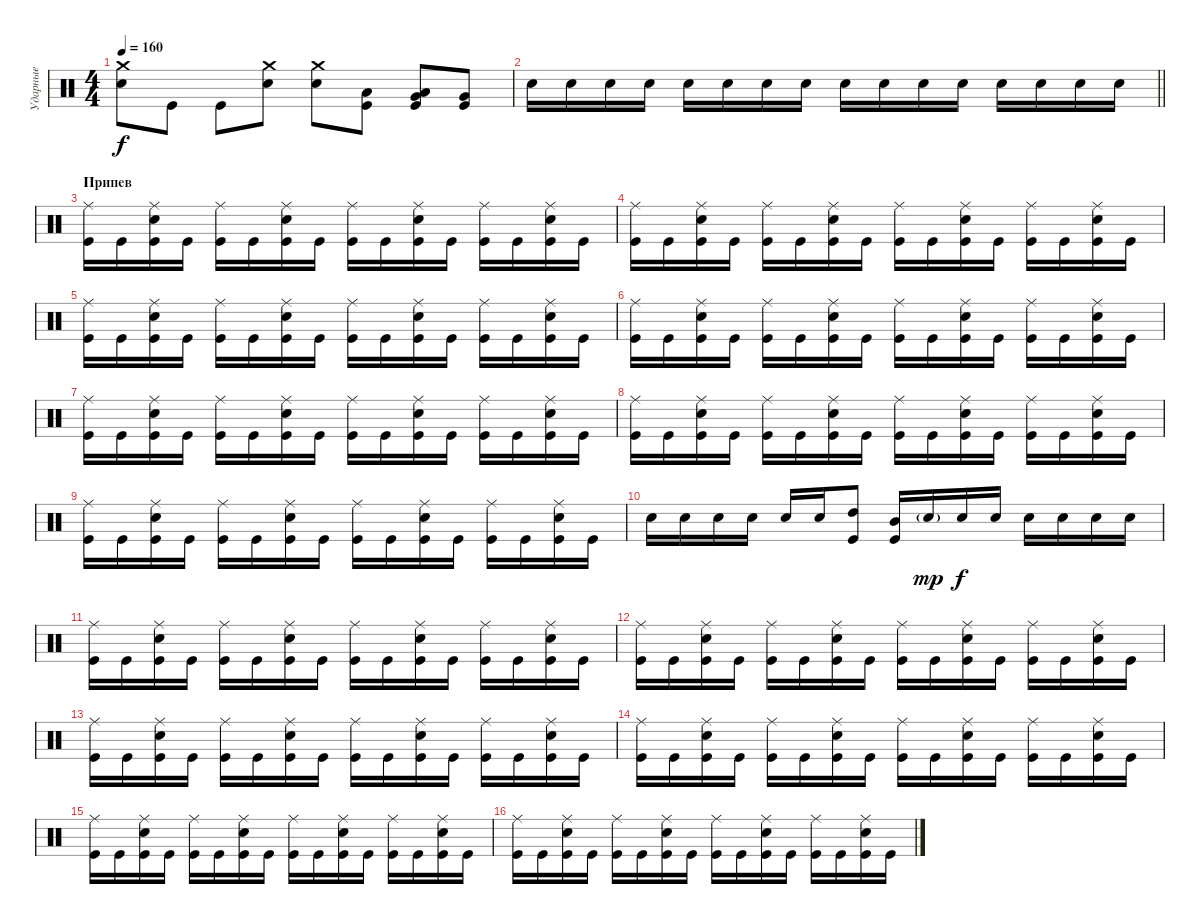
\track ("Ударные" "Ударные") {instrument percussion}
\staff {score}
\articulation defaults
\ts (4 4)
\tempo 160
\clef neutral
\ks c
("Snare (hit) 2" "Crash medium (hit)").8{dy f} "Kick (hit)".8 "Kick (hit)".8 ("Snare (hit) 2" "Crash medium (hit)").8 ("Snare (hit) 2" "Crash medium (hit)").8 ("Kick (hit)" "Low Tom (hit)").8 ("Kick (hit)" "Very Low Tom (hit)" "Low Tom (hit)").8{bd 60} ("Kick (hit)" "Very Low Tom (hit)").8 |
\barLineRight lightlight "Snare (hit) 2".16 "Snare (hit) 2".16 "Snare (hit) 2".16 "Snare (hit) 2".16 "Snare (hit) 2".16 "Snare (hit) 2".16 "Snare (hit) 2".16 "Snare (hit) 2".16 "Snare (hit) 2".16 "Snare (hit) 2".16 "Snare (hit) 2".16 "Snare (hit) 2".16 "Snare (hit) 2".16 "Snare (hit) 2".16 "Snare (hit) 2".16 "Snare (hit) 2".16
|
\section ("" "Припев")
("Kick (hit)" "Ride (middle)").16 "Kick (hit)".16 ("Kick (hit)" "Snare (hit) 2" "Ride (middle)").16 "Kick (hit)".16 ("Kick (hit)" "Ride (middle)").16 "Kick (hit)".16 ("Kick (hit)" "Snare (hit) 2" "Ride (middle)").16 "Kick (hit)".16 ("Kick (hit)" "Ride (middle)").16 "Kick (hit)".16 ("Kick (hit)" "Snare (hit) 2" "Ride (middle)").16 "Kick (hit)".16 ("Kick (hit)" "Ride (middle)").16 "Kick (hit)".16 ("Kick (hit)" "Snare (hit) 2" "Ride (middle)").16 "Kick (hit)".16 |
("Kick (hit)" "Ride (middle)").16 "Kick (hit)".16 ("Kick (hit)" "Snare (hit) 2" "Ride (middle)").16 "Kick (hit)".16 ("Kick (hit)" "Ride (middle)").16 "Kick (hit)".16 ("Kick (hit)" "Snare (hit) 2" "Ride (middle)").16 "Kick (hit)".16 ("Kick (hit)" "Ride (middle)").16 "Kick (hit)".16 ("Kick (hit)" "Snare (hit) 2" "Ride (middle)").16 "Kick (hit)".16 ("Kick (hit)" "Ride (middle)").16 "Kick (hit)".16 ("Kick (hit)" "Snare (hit) 2" "Ride (middle)").16 "Kick (hit)".16 |
("Kick (hit)" "Ride (middle)").16 "Kick (hit)".16 ("Kick (hit)" "Snare (hit) 2" "Ride (middle)").16 "Kick (hit)".16 ("Kick (hit)" "Ride (middle)").16 "Kick (hit)".16 ("Kick (hit)" "Snare (hit) 2" "Ride (middle)").16 "Kick (hit)".16 ("Kick (hit)" "Ride (middle)").16 "Kick (hit)".16 ("Kick (hit)" "Snare (hit) 2" "Ride (middle)").16 "Kick (hit)".16 ("Kick (hit)" "Ride (middle)").16 "Kick (hit)".16 ("Kick (hit)" "Snare (hit) 2" "Ride (middle)").16 "Kick (hit)".16 |
("Kick (hit)" "Ride (middle)").16 "Kick (hit)".16 ("Kick (hit)" "Snare (hit) 2" "Ride (middle)").16 "Kick (hit)".16 ("Kick (hit)" "Ride (middle)").16 "Kick (hit)".16 ("Kick (hit)" "Snare (hit) 2" "Ride (middle)").16 "Kick (hit)".16 ("Kick (hit)" "Ride (middle)").16 "Kick (hit)".16 ("Kick (hit)" "Snare (hit) 2" "Ride (middle)").16 "Kick (hit)".16 ("Kick (hit)" "Ride (middle)").16 "Kick (hit)".16 ("Kick (hit)" "Snare (hit) 2" "Ride (middle)").16 "Kick (hit)".16 |
("Kick (hit)" "Ride (middle)").16 "Kick (hit)".16 ("Kick (hit)" "Snare (hit) 2" "Ride (middle)").16 "Kick (hit)".16 ("Kick (hit)" "Ride (middle)").16 "Kick (hit)".16 ("Kick (hit)" "Snare (hit) 2" "Ride (middle)").16 "Kick (hit)".16 ("Kick (hit)" "Ride (middle)").16 "Kick (hit)".16 ("Kick (hit)" "Snare (hit) 2" "Ride (middle)").16 "Kick (hit)".16 ("Kick (hit)" "Ride (middle)").16 "Kick (hit)".16 ("Kick (hit)" "Snare (hit) 2" "Ride (middle)").16 "Kick (hit)".16 |
("Kick (hit)" "Ride (middle)").16 "Kick (hit)".16 ("Kick (hit)" "Snare (hit) 2" "Ride (middle)").16 "Kick (hit)".16 ("Kick (hit)" "Ride (middle)").16 "Kick (hit)".16 ("Kick (hit)" "Snare (hit) 2" "Ride (middle)").16 "Kick (hit)".16 ("Kick (hit)" "Ride (middle)").16 "Kick (hit)".16 ("Kick (hit)" "Snare (hit) 2" "Ride (middle)").16 "Kick (hit)".16 ("Kick (hit)" "Ride (middle)").16 "Kick (hit)".16 ("Kick (hit)" "Snare (hit) 2" "Ride (middle)").16 "Kick (hit)".16 |
("Kick (hit)" "Ride (middle)").16 "Kick (hit)".16 ("Kick (hit)" "Snare (hit) 2" "Ride (middle)").16 "Kick (hit)".16 ("Kick (hit)" "Ride (middle)").16 "Kick (hit)".16 ("Kick (hit)" "Snare (hit) 2" "Ride (middle)").16 "Kick (hit)".16 ("Kick (hit)" "Ride (middle)").16 "Kick (hit)".16 ("Kick (hit)" "Snare (hit) 2" "Ride (middle)").16 "Kick (hit)".16 ("Kick (hit)" "Ride (middle)").16 "Kick (hit)".16 ("Kick (hit)" "Snare (hit) 2" "Ride (middle)").16 "Kick (hit)".16 |
"Snare (hit) 2".16 "Snare (hit) 2".16 "Snare (hit) 2".16 "Snare (hit) 2".16 "Snare (hit) 2".16 "Snare (hit) 2".16 ("Kick (hit)" "High Tom (hit)").8 ("Kick (hit)" "Mid Tom (hit)").16 "Snare (hit) 2"{g}.16{dy mp} "Snare (hit) 2".16{dy f} "Snare (hit) 2".16 "Snare (hit) 2".16 "Snare (hit) 2".16 "Snare (hit) 2".16 "Snare (hit) 2".16 |
("Kick (hit)" "Ride (middle)").16 "Kick (hit)".16 ("Kick (hit)" "Snare (hit) 2" "Ride (middle)").16 "Kick (hit)".16 ("Kick (hit)" "Ride (middle)").16 "Kick (hit)".16 ("Kick (hit)" "Snare (hit) 2" "Ride (middle)").16 "Kick (hit)".16 ("Kick (hit)" "Ride (middle)").16 "Kick (hit)".16 ("Kick (hit)" "Snare (hit) 2" "Ride (middle)").16 "Kick (hit)".16 ("Kick (hit)" "Ride (middle)").16 "Kick (hit)".16 ("Kick (hit)" "Snare (hit) 2" "Ride (middle)").16 "Kick (hit)".16 |
("Kick (hit)" "Ride (middle)").16 "Kick (hit)".16 ("Kick (hit)" "Snare (hit) 2" "Ride (middle)").16 "Kick (hit)".16 ("Kick (hit)" "Ride (middle)").16 "Kick (hit)".16 ("Kick (hit)" "Snare (hit) 2" "Ride (middle)").16 "Kick (hit)".16 ("Kick (hit)" "Ride (middle)").16 "Kick (hit)".16 ("Kick (hit)" "Snare (hit) 2" "Ride (middle)").16 "Kick (hit)".16 ("Kick (hit)" "Ride (middle)").16 "Kick (hit)".16 ("Kick (hit)" "Snare (hit) 2" "Ride (middle)").16 "Kick (hit)".16 |
("Kick (hit)" "Ride (middle)").16 "Kick (hit)".16 ("Kick (hit)" "Snare (hit) 2" "Ride (middle)").16 "Kick (hit)".16 ("Kick (hit)" "Ride (middle)").16 "Kick (hit)".16 ("Kick (hit)" "Snare (hit) 2" "Ride (middle)").16 "Kick (hit)".16 ("Kick (hit)" "Ride (middle)").16 "Kick (hit)".16 ("Kick (hit)" "Snare (hit) 2" "Ride (middle)").16 "Kick (hit)".16 ("Kick (hit)" "Ride (middle)").16 "Kick (hit)".16 ("Kick (hit)" "Snare (hit) 2" "Ride (middle)").16 "Kick (hit)".16 |
("Kick (hit)" "Ride (middle)").16 "Kick (hit)".16 ("Kick (hit)" "Snare (hit) 2" "Ride (middle)").16 "Kick (hit)".16 ("Kick (hit)" "Ride (middle)").16 "Kick (hit)".16 ("Kick (hit)" "Snare (hit) 2" "Ride (middle)").16 "Kick (hit)".16 ("Kick (hit)" "Ride (middle)").16 "Kick (hit)".16 ("Kick (hit)" "Snare (hit) 2" "Ride (middle)").16 "Kick (hit)".16 ("Kick (hit)" "Ride (middle)").16 "Kick (hit)".16 ("Kick (hit)" "Snare (hit) 2" "Ride (middle)").16 "Kick (hit)".16 |
("Kick (hit)" "Ride (middle)").16 "Kick (hit)".16 ("Kick (hit)" "Snare (hit) 2" "Ride (middle)").16 "Kick (hit)".16 ("Kick (hit)" "Ride (middle)").16 "Kick (hit)".16 ("Kick (hit)" "Snare (hit) 2" "Ride (middle)").16 "Kick (hit)".16 ("Kick (hit)" "Ride (middle)").16 "Kick (hit)".16 ("Kick (hit)" "Snare (hit) 2" "Ride (middle)").16 "Kick (hit)".16 ("Kick (hit)" "Ride (middle)").16 "Kick (hit)".16 ("Kick (hit)" "Snare (hit) 2" "Ride (middle)").16 "Kick (hit)".16 |
("Kick (hit)" "Ride (middle)").16 "Kick (hit)".16 ("Kick (hit)" "Snare (hit) 2" "Ride (middle)").16 "Kick (hit)".16 ("Kick (hit)" "Ride (middle)").16 "Kick (hit)".16 ("Kick (hit)" "Snare (hit) 2" "Ride (middle)").16 "Kick (hit)".16 ("Kick (hit)" "Ride (middle)").16 "Kick (hit)".16 ("Kick (hit)" "Snare (hit) 2" "Ride (middle)").16 "Kick (hit)".16 ("Kick (hit)" "Ride (middle)").16 "Kick (hit)".16 ("Kick (hit)" "Snare (hit) 2" "Ride (middle)").16 "Kick (hit)".16
